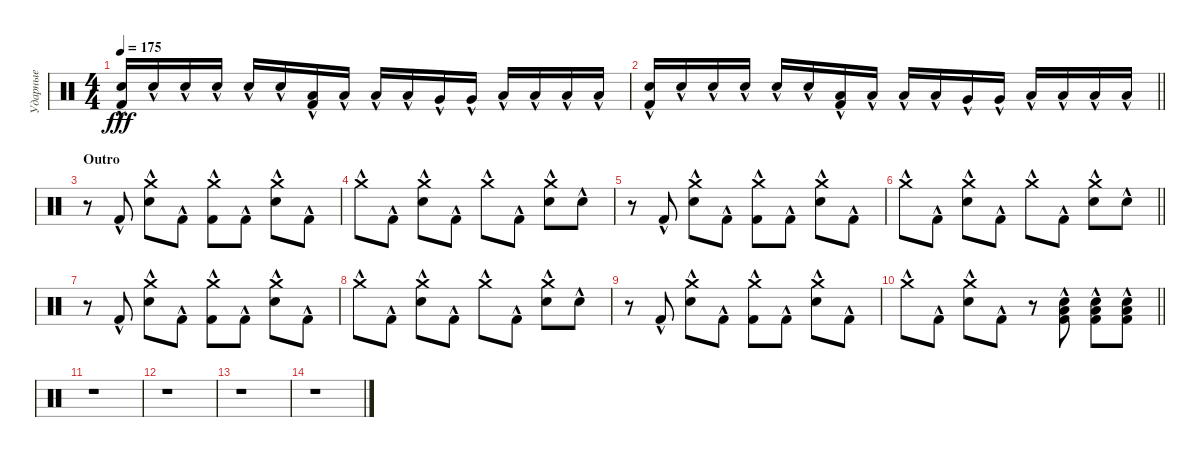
\track ("Ударные" "Ударные") {instrument percussion}
\staff {score}
\articulation defaults
\ts (4 4)
\tempo 175
\clef neutral
\ks c
("Snare (hit) 2"{hac} "Kick (hit) 2"{hac}).16{dy fff} "Snare (hit) 2"{hac}.16 "Snare (hit) 2"{hac}.16 "Snare (hit) 2"{hac}.16 "Snare (hit) 2"{hac}.16 "Snare (hit) 2"{hac}.16 ("Low Tom (hit)"{hac} "Kick (hit) 2"{hac}).16 "Low Tom (hit)"{hac}.16 "Low Tom (hit)"{hac}.16 "Low Tom (hit)"{hac}.16 "Very Low Tom (hit)"{hac}.16 "Very Low Tom (hit)"{hac}.16 "Low Floor Tom (hit)"{hac}.16 "Low Floor Tom (hit)"{hac}.16 "Low Floor Tom (hit)"{hac}.16 "Low Floor Tom (hit)"{hac}.16 |
\barLineRight lightlight
("Snare (hit) 2"{hac} "Kick (hit) 2"{hac}).16 "Snare (hit) 2"{hac}.16 "Snare (hit) 2"{hac}.16 "Snare (hit) 2"{hac}.16 "Snare (hit) 2"{hac}.16 "Snare (hit) 2"{hac}.16 ("Low Tom (hit)"{hac} "Kick (hit) 2"{hac}).16 "Low Tom (hit)"{hac}.16 "Low Tom (hit)"{hac}.16 "Low Tom (hit)"{hac}.16 "Very Low Tom (hit)"{hac}.16 "Very Low Tom (hit)"{hac}.16 "Low Floor Tom (hit)"{hac}.16 "Low Floor Tom (hit)"{hac}.16 "Low Floor Tom (hit)"{hac}.16 "Low Floor Tom (hit)"{hac}.16 |
\section ("" "Outro")
r.8 "Kick (hit) 2"{hac}.8 ("Crash medium (hit)"{hac} "Snare (hit) 2"{hac}).8 "Kick (hit) 2"{hac}.8 ("Crash medium (hit)"{hac} "Kick (hit) 2"{hac}).8 "Kick (hit) 2"{hac}.8 ("Crash medium (hit)"{hac} "Snare (hit) 2"{hac}).8 "Kick (hit) 2"{hac}.8 |
"Crash medium (hit)"{hac}.8 "Kick (hit) 2"{hac}.8 ("Crash medium (hit)"{hac} "Snare (hit) 2"{hac}).8 "Kick (hit) 2"{hac}.8 "Crash medium (hit)"{hac}.8 "Kick (hit) 2"{hac}.8 ("Crash medium (hit)"{hac} "Snare (hit) 2"{hac}).8 "Snare (hit) 2"{hac}.8 |
r.8 "Kick (hit) 2"{hac}.8 ("Crash medium (hit)"{hac} "Snare (hit) 2"{hac}).8 "Kick (hit) 2"{hac}.8 ("Crash medium (hit)"{hac} "Kick (hit) 2"{hac}).8 "Kick (hit) 2"{hac}.8 ("Crash medium (hit)"{hac} "Snare (hit) 2"{hac}).8 "Kick (hit) 2"{hac}.8 |
\barLineRight lightlight "Crash medium (hit)"{hac}.8 "Kick (hit) 2"{hac}.8
("Crash medium (hit)"{hac} "Snare (hit) 2"{hac}).8 "Kick (hit) 2"{hac}.8 "Crash medium (hit)"{hac}.8 "Kick (hit) 2"{hac}.8 ("Crash medium (hit)"{hac} "Snare (hit) 2"{hac}).8 "Snare (hit) 2"{hac}.8 |
r.8 "Kick (hit) 2"{hac}.8 ("Crash medium (hit)"{hac} "Snare (hit) 2"{hac}).8 "Kick (hit) 2"{hac}.8 ("Crash medium (hit)"{hac} "Kick (hit) 2"{hac}).8 "Kick (hit) 2"{hac}.8 ("Crash medium (hit)"{hac} "Snare (hit) 2"{hac}).8 "Kick (hit) 2"{hac}.8 |
"Crash medium (hit)"{hac}.8 "Kick (hit) 2"{hac}.8 ("Crash medium (hit)"{hac} "Snare (hit) 2"{hac}).8 "Kick (hit) 2"{hac}.8 "Crash medium (hit)"{hac}.8 "Kick (hit) 2"{hac}.8 ("Crash medium (hit)"{hac} "Snare (hit) 2"{hac}).8 "Snare (hit) 2"{hac}.8 |
r.8 "Kick (hit) 2"{hac}.8 ("Crash medium (hit)"{hac} "Snare (hit) 2"{hac}).8 "Kick (hit) 2"{hac}.8 ("Crash medium (hit)"{hac} "Kick (hit) 2"{hac}).8 "Kick (hit) 2"{hac}.8 ("Crash medium (hit)"{hac} "Snare (hit) 2"{hac}).8 "Kick (hit) 2"{hac}.8 |
\barLineRight lightlight "Crash medium (hit)"{hac}.8 "Kick (hit) 2"{hac}.8
("Crash medium (hit)"{hac} "Snare (hit) 2"{hac}).8 "Kick (hit) 2"{hac}.8 r.8 ("Snare (hit) 2"{hac} "Low Floor Tom (hit)"{hac} "Kick (hit) 2"{hac}).8 ("Snare (hit) 2"{hac} "Low Floor Tom (hit)"{hac} "Kick (hit) 2"{hac}).8 ("Snare (hit) 2"{hac} "Low Floor Tom (hit)"{hac} "Kick (hit) 2"{hac}).8 |
r.1 |
r.1 |
r.1 |
r.1
